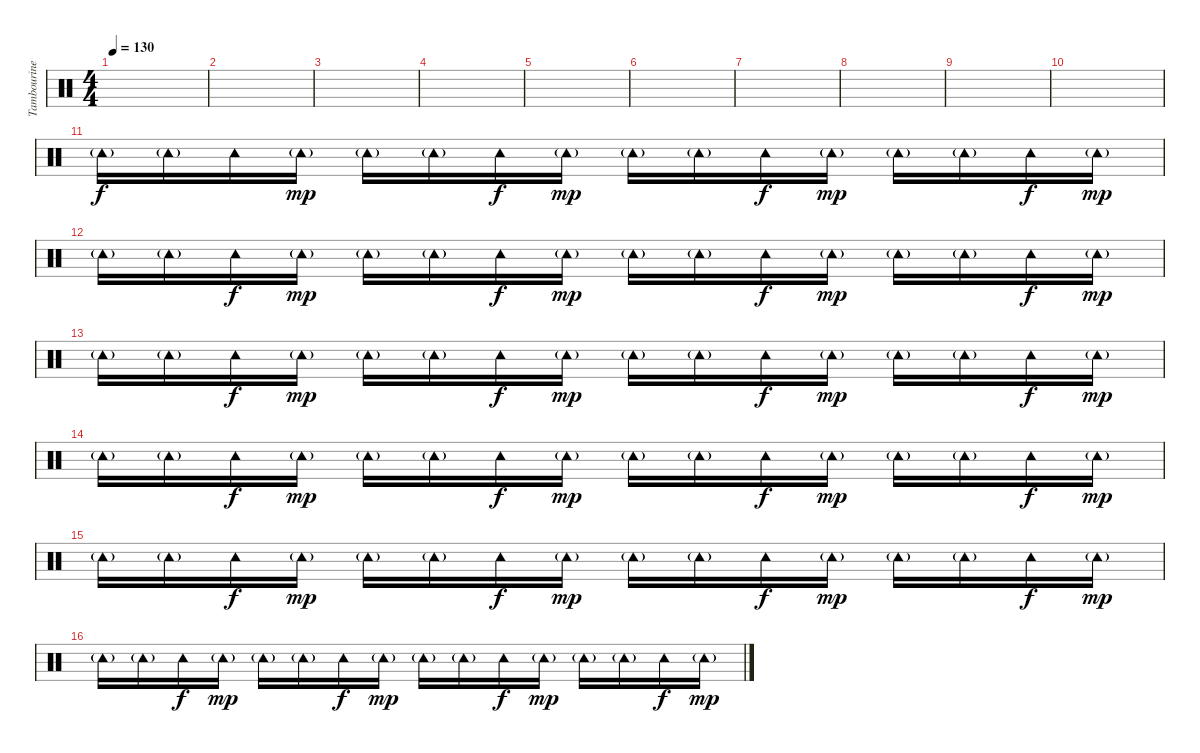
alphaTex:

\track ("Tambourine" "Tambourine") {instrument percussion}
\staff {score}
\articulation defaults
\ts (4 4)
\tempo 130
\clef neutral
\ks c
|
|
|
|
|
|
|
|
|
|
"Tambourine (hit)"{g}.16 "Tambourine (hit)"{g}.16 "Tambourine (hit)".16{dy f} "Tambourine (hit)"{g}.16{dy mp} "Tambourine (hit)"{g}.16 "Tambourine (hit)"{g}.16 "Tambourine (hit)".16{dy f} "Tambourine (hit)"{g}.16{dy mp} "Tambourine (hit)"{g}.16 "Tambourine (hit)"{g}.16 "Tambourine (hit)".16{dy f} "Tambourine (hit)"{g}.16{dy mp} "Tambourine (hit)"{g}.16 "Tambourine (hit)"{g}.16 "Tambourine (hit)".16{dy f} "Tambourine (hit)"{g}.16{dy mp} |
"Tambourine (hit)"{g}.16 "Tambourine (hit)"{g}.16 "Tambourine (hit)".16{dy f} "Tambourine (hit)"{g}.16{dy mp} "Tambourine (hit)"{g}.16 "Tambourine (hit)"{g}.16 "Tambourine (hit)".16{dy f} "Tambourine (hit)"{g}.16{dy mp} "Tambourine (hit)"{g}.16 "Tambourine (hit)"{g}.16 "Tambourine (hit)".16{dy f} "Tambourine (hit)"{g}.16{dy mp} "Tambourine (hit)"{g}.16 "Tambourine (hit)"{g}.16 "Tambourine (hit)".16{dy f} "Tambourine (hit)"{g}.16{dy mp} |
"Tambourine (hit)"{g}.16 "Tambourine (hit)"{g}.16 "Tambourine (hit)".16{dy f} "Tambourine (hit)"{g}.16{dy mp} "Tambourine (hit)"{g}.16 "Tambourine (hit)"{g}.16 "Tambourine (hit)".16{dy f} "Tambourine (hit)"{g}.16{dy mp} "Tambourine (hit)"{g}.16 "Tambourine (hit)"{g}.16 "Tambourine (hit)".16{dy f} "Tambourine (hit)"{g}.16{dy mp} "Tambourine (hit)"{g}.16 "Tambourine (hit)"{g}.16 "Tambourine (hit)".16{dy f} "Tambourine (hit)"{g}.16{dy mp} |
"Tambourine (hit)"{g}.16 "Tambourine (hit)"{g}.16 "Tambourine (hit)".16{dy f} "Tambourine (hit)"{g}.16{dy mp} "Tambourine (hit)"{g}.16 "Tambourine (hit)"{g}.16 "Tambourine (hit)".16{dy f} "Tambourine (hit)"{g}.16{dy mp} "Tambourine (hit)"{g}.16 "Tambourine (hit)"{g}.16 "Tambourine (hit)".16{dy f} "Tambourine (hit)"{g}.16{dy mp} "Tambourine (hit)"{g}.16 "Tambourine (hit)"{g}.16 "Tambourine (hit)".16{dy f} "Tambourine (hit)"{g}.16{dy mp} |
"Tambourine (hit)"{g}.16 "Tambourine (hit)"{g}.16 "Tambourine (hit)".16{dy f} "Tambourine (hit)"{g}.16{dy mp} "Tambourine (hit)"{g}.16 "Tambourine (hit)"{g}.16 "Tambourine (hit)".16{dy f} "Tambourine (hit)"{g}.16{dy mp} "Tambourine (hit)"{g}.16 "Tambourine (hit)"{g}.16 "Tambourine (hit)".16{dy f} "Tambourine (hit)"{g}.16{dy mp} "Tambourine (hit)"{g}.16 "Tambourine (hit)"{g}.16 "Tambourine (hit)".16{dy f} "Tambourine (hit)"{g}.16{dy mp} |
"Tambourine (hit)"{g}.16 "Tambourine (hit)"{g}.16 "Tambourine (hit)".16{dy f} "Tambourine (hit)"{g}.16{dy mp} "Tambourine (hit)"{g}.16 "Tambourine (hit)"{g}.16 "Tambourine (hit)".16{dy f} "Tambourine (hit)"{g}.16{dy mp} "Tambourine (hit)"{g}.16 "Tambourine (hit)"{g}.16 "Tambourine (hit)".16{dy f} "Tambourine (hit)"{g}.16{dy mp} "Tambourine (hit)"{g}.16 "Tambourine (hit)"{g}.16 "Tambourine (hit)".16{dy f} "Tambourine (hit)"{g}.16{dy mp}
